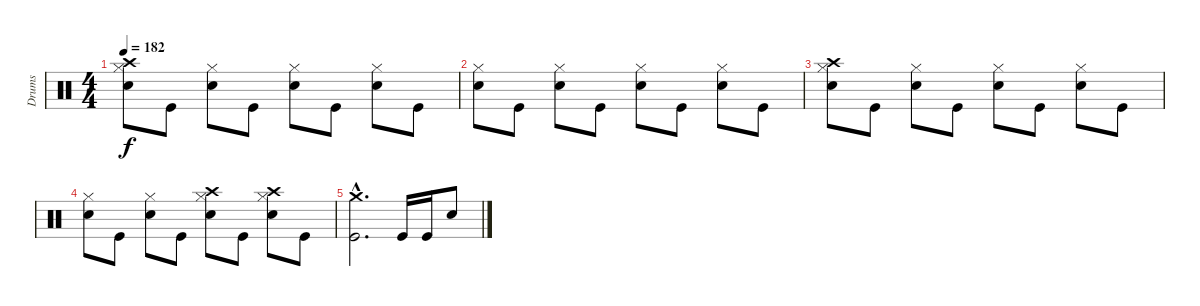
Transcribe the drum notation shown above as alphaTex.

\track ("Drums" "Drums") {instrument percussion}
\staff {score}
\articulation defaults
\ts (4 4)
\tempo 182
\clef neutral
\ks c
("Crash high (hit)" "Hi-Hat (closed)" "Snare (hit) 2").8{dy f} "Kick (hit)".8 ("Hi-Hat (closed)" "Snare (hit) 2").8 "Kick (hit)".8 ("Hi-Hat (closed)" "Snare (hit) 2").8 "Kick (hit)".8 ("Hi-Hat (closed)" "Snare (hit) 2").8 "Kick (hit)".8 |
("Hi-Hat (closed)" "Snare (hit) 2").8 "Kick (hit)".8 ("Hi-Hat (closed)" "Snare (hit) 2").8 "Kick (hit)".8 ("Hi-Hat (closed)" "Snare (hit) 2").8 "Kick (hit)".8 ("Hi-Hat (closed)" "Snare (hit) 2").8 "Kick (hit)".8 |
("Crash high (hit)" "Hi-Hat (closed)" "Snare (hit) 2").8 "Kick (hit)".8 ("Hi-Hat (closed)" "Snare (hit) 2").8 "Kick (hit)".8 ("Hi-Hat (closed)" "Snare (hit) 2").8 "Kick (hit)".8 ("Hi-Hat (closed)" "Snare (hit) 2").8 "Kick (hit)".8 |
("Hi-Hat (closed)" "Snare (hit) 2").8 "Kick (hit)".8 ("Hi-Hat (closed)" "Snare (hit) 2").8 "Kick (hit)".8 ("Crash high (hit)" "Hi-Hat (closed)" "Snare (hit) 2").8 "Kick (hit)".8 ("Crash high (hit)" "Hi-Hat (closed)" "Snare (hit) 2").8 "Kick (hit)".8 |
("Crash medium (hit)"{hac} "Kick (hit)"{hac}).2{d} "Kick (hit)".16 "Kick (hit)".16 "Snare (hit) 2".8
